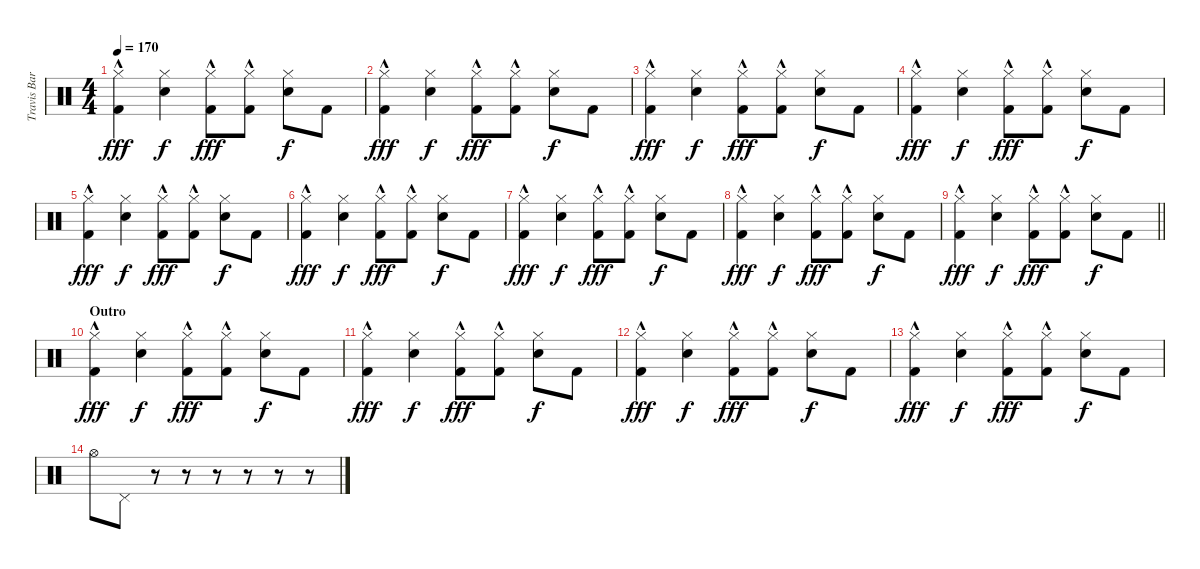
\track ("Travis Barker" "Travis Bar") {instrument percussion}
\staff {score}
\articulation defaults
\ts (4 4)
\tempo 170
\clef neutral
\ks c
("Hi-Hat (closed)" "Kick (hit) 2"{hac}).4{dy fff} ("Hi-Hat (closed)" "Snare (hit) 2").4{dy f} ("Hi-Hat (closed)" "Kick (hit) 2"{hac}).8{dy fff} ("Hi-Hat (closed)" "Kick (hit) 2"{hac}).8 ("Hi-Hat (closed)" "Snare (hit) 2").8{dy f} "Kick (hit) 2".8 |
("Hi-Hat (closed)" "Kick (hit) 2"{hac}).4{dy fff} ("Hi-Hat (closed)" "Snare (hit) 2").4{dy f} ("Hi-Hat (closed)" "Kick (hit) 2"{hac}).8{dy fff} ("Hi-Hat (closed)" "Kick (hit) 2"{hac}).8 ("Hi-Hat (closed)" "Snare (hit) 2").8{dy f} "Kick (hit) 2".8 |
("Hi-Hat (closed)" "Kick (hit) 2"{hac}).4{dy fff} ("Hi-Hat (closed)" "Snare (hit) 2").4{dy f} ("Hi-Hat (closed)" "Kick (hit) 2"{hac}).8{dy fff} ("Hi-Hat (closed)" "Kick (hit) 2"{hac}).8 ("Hi-Hat (closed)" "Snare (hit) 2").8{dy f} "Kick (hit) 2".8 |
("Hi-Hat (closed)" "Kick (hit) 2"{hac}).4{dy fff} ("Hi-Hat (closed)" "Snare (hit) 2").4{dy f} ("Hi-Hat (closed)" "Kick (hit) 2"{hac}).8{dy fff} ("Hi-Hat (closed)" "Kick (hit) 2"{hac}).8 ("Hi-Hat (closed)" "Snare (hit) 2").8{dy f} "Kick (hit) 2".8 |
("Hi-Hat (closed)" "Kick (hit) 2"{hac}).4{dy fff} ("Hi-Hat (closed)" "Snare (hit) 2").4{dy f} ("Hi-Hat (closed)" "Kick (hit) 2"{hac}).8{dy fff} ("Hi-Hat (closed)" "Kick (hit) 2"{hac}).8 ("Hi-Hat (closed)" "Snare (hit) 2").8{dy f} "Kick (hit) 2".8 |
("Hi-Hat (closed)" "Kick (hit) 2"{hac}).4{dy fff} ("Hi-Hat (closed)" "Snare (hit) 2").4{dy f} ("Hi-Hat (closed)" "Kick (hit) 2"{hac}).8{dy fff} ("Hi-Hat (closed)" "Kick (hit) 2"{hac}).8 ("Hi-Hat (closed)" "Snare (hit) 2").8{dy f} "Kick (hit) 2".8 |
("Hi-Hat (closed)" "Kick (hit) 2"{hac}).4{dy fff} ("Hi-Hat (closed)" "Snare (hit) 2").4{dy f} ("Hi-Hat (closed)" "Kick (hit) 2"{hac}).8{dy fff} ("Hi-Hat (closed)" "Kick (hit) 2"{hac}).8 ("Hi-Hat (closed)" "Snare (hit) 2").8{dy f} "Kick (hit) 2".8 |
("Hi-Hat (closed)" "Kick (hit) 2"{hac}).4{dy fff} ("Hi-Hat (closed)" "Snare (hit) 2").4{dy f} ("Hi-Hat (closed)" "Kick (hit) 2"{hac}).8{dy fff} ("Hi-Hat (closed)" "Kick (hit) 2"{hac}).8 ("Hi-Hat (closed)" "Snare (hit) 2").8{dy f} "Kick (hit) 2".8 |
\barLineRight lightlight
("Hi-Hat (closed)" "Kick (hit) 2"{hac}).4{dy fff} ("Hi-Hat (closed)" "Snare (hit) 2").4{dy f} ("Hi-Hat (closed)" "Kick (hit) 2"{hac}).8{dy fff} ("Hi-Hat (closed)" "Kick (hit) 2"{hac}).8 ("Hi-Hat (closed)" "Snare (hit) 2").8{dy f} "Kick (hit) 2".8 |
\section ("" "Outro")
("Hi-Hat (closed)" "Kick (hit) 2"{hac}).4{dy fff} ("Hi-Hat (closed)" "Snare (hit) 2").4{dy f} ("Hi-Hat (closed)" "Kick (hit) 2"{hac}).8{dy fff} ("Hi-Hat (closed)" "Kick (hit) 2"{hac}).8 ("Hi-Hat (closed)" "Snare (hit) 2").8{dy f} "Kick (hit) 2".8 |
("Hi-Hat (closed)" "Kick (hit) 2"{hac}).4{dy fff} ("Hi-Hat (closed)" "Snare (hit) 2").4{dy f} ("Hi-Hat (closed)" "Kick (hit) 2"{hac}).8{dy fff} ("Hi-Hat (closed)" "Kick (hit) 2"{hac}).8 ("Hi-Hat (closed)" "Snare (hit) 2").8{dy f} "Kick (hit) 2".8 |
("Hi-Hat (closed)" "Kick (hit) 2"{hac}).4{dy fff} ("Hi-Hat (closed)" "Snare (hit) 2").4{dy f} ("Hi-Hat (closed)" "Kick (hit) 2"{hac}).8{dy fff} ("Hi-Hat (closed)" "Kick (hit) 2"{hac}).8 ("Hi-Hat (closed)" "Snare (hit) 2").8{dy f} "Kick (hit) 2".8 |
("Hi-Hat (closed)" "Kick (hit) 2"{hac}).4{dy fff} ("Hi-Hat (closed)" "Snare (hit) 2").4{dy f} ("Hi-Hat (closed)" "Kick (hit) 2"{hac}).8{dy fff} ("Hi-Hat (closed)" "Kick (hit) 2"{hac}).8 ("Hi-Hat (closed)" "Snare (hit) 2").8{dy f} "Kick (hit) 2".8 |
"Hi-Hat (open)".8 "Pedal Hi-Hat (hit)".8 r.8 r.8 r.8 r.8 r.8 r.8
